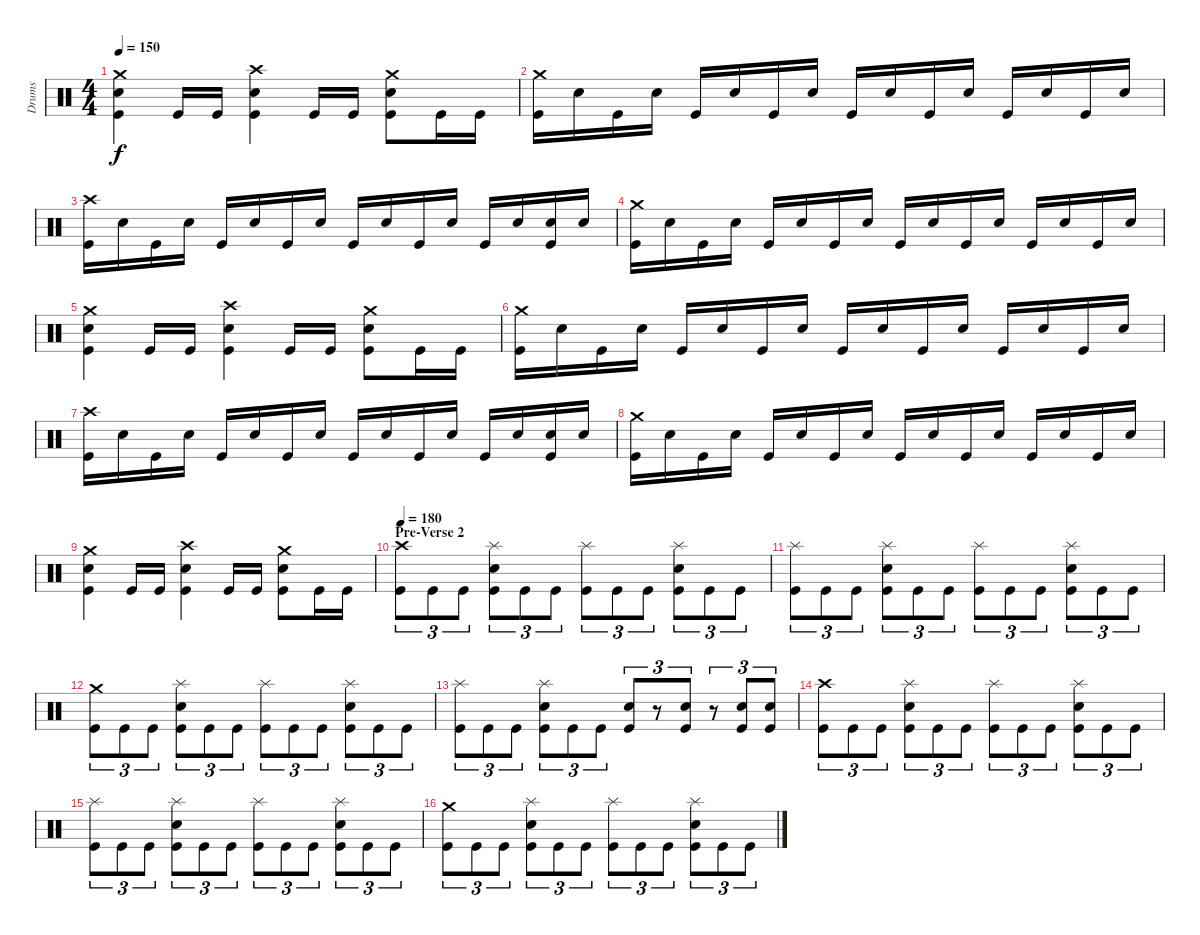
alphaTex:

\track ("Drums" "Drums") {instrument percussion}
\staff {score}
\articulation defaults
\ts (4 4)
\tempo 150
\clef neutral
\ks c
("Crash medium (hit)" "Electric Snare (hit)" "Kick (hit)").4{dy f} "Kick (hit)".16 "Kick (hit)".16 ("Crash high (hit)" "Electric Snare (hit)" "Kick (hit)").4 "Kick (hit)".16 "Kick (hit)".16 ("Crash medium (hit)" "Electric Snare (hit)" "Kick (hit)").8 "Kick (hit)".16 "Kick (hit)".16 |
("Crash medium (hit)" "Kick (hit)").16 "Electric Snare (hit)".16 "Kick (hit)".16 "Electric Snare (hit)".16 "Kick (hit)".16 "Electric Snare (hit)".16 "Kick (hit)".16 "Electric Snare (hit)".16 "Kick (hit)".16 "Electric Snare (hit)".16 "Kick (hit)".16 "Electric Snare (hit)".16 "Kick (hit)".16 "Electric Snare (hit)".16 "Kick (hit)".16 "Electric Snare (hit)".16 |
("Crash high (hit)" "Kick (hit)").16 "Electric Snare (hit)".16 "Kick (hit)".16 "Electric Snare (hit)".16 "Kick (hit)".16 "Electric Snare (hit)".16 "Kick (hit)".16 "Electric Snare (hit)".16 "Kick (hit)".16 "Electric Snare (hit)".16 "Kick (hit)".16 "Electric Snare (hit)".16 "Kick (hit)".16 "Electric Snare (hit)".16 ("Electric Snare (hit)" "Kick (hit)").16 "Electric Snare (hit)".16 |
("Crash medium (hit)" "Kick (hit)").16 "Electric Snare (hit)".16 "Kick (hit)".16 "Electric Snare (hit)".16 "Kick (hit)".16 "Electric Snare (hit)".16 "Kick (hit)".16 "Electric Snare (hit)".16 "Kick (hit)".16 "Electric Snare (hit)".16 "Kick (hit)".16 "Electric Snare (hit)".16 "Kick (hit)".16 "Electric Snare (hit)".16 "Kick (hit)".16 "Electric Snare (hit)".16 |
("Crash medium (hit)" "Electric Snare (hit)" "Kick (hit)").4 "Kick (hit)".16 "Kick (hit)".16 ("Crash high (hit)" "Electric Snare (hit)" "Kick (hit)").4 "Kick (hit)".16 "Kick (hit)".16 ("Crash medium (hit)" "Electric Snare (hit)" "Kick (hit)").8 "Kick (hit)".16 "Kick (hit)".16 |
("Crash medium (hit)" "Kick (hit)").16 "Electric Snare (hit)".16 "Kick (hit)".16 "Electric Snare (hit)".16 "Kick (hit)".16 "Electric Snare (hit)".16 "Kick (hit)".16 "Electric Snare (hit)".16 "Kick (hit)".16 "Electric Snare (hit)".16 "Kick (hit)".16 "Electric Snare (hit)".16 "Kick (hit)".16 "Electric Snare (hit)".16 "Kick (hit)".16 "Electric Snare (hit)".16 |
("Crash high (hit)" "Kick (hit)").16 "Electric Snare (hit)".16 "Kick (hit)".16 "Electric Snare (hit)".16 "Kick (hit)".16 "Electric Snare (hit)".16 "Kick (hit)".16 "Electric Snare (hit)".16 "Kick (hit)".16 "Electric Snare (hit)".16 "Kick (hit)".16 "Electric Snare (hit)".16 "Kick (hit)".16 "Electric Snare (hit)".16 ("Electric Snare (hit)" "Kick (hit)").16 "Electric Snare (hit)".16 |
("Crash medium (hit)" "Kick (hit)").16 "Electric Snare (hit)".16 "Kick (hit)".16 "Electric Snare (hit)".16 "Kick (hit)".16 "Electric Snare (hit)".16 "Kick (hit)".16 "Electric Snare (hit)".16 "Kick (hit)".16 "Electric Snare (hit)".16 "Kick (hit)".16 "Electric Snare (hit)".16 "Kick (hit)".16 "Electric Snare (hit)".16 "Kick (hit)".16 "Electric Snare (hit)".16 |
("Crash medium (hit)" "Electric Snare (hit)" "Kick (hit)").4 "Kick (hit)".16 "Kick (hit)".16 ("Crash high (hit)" "Electric Snare (hit)" "Kick (hit)").4 "Kick (hit)".16 "Kick (hit)".16 ("Crash medium (hit)" "Electric Snare (hit)" "Kick (hit)").8 "Kick (hit)".16 "Kick (hit)".16 |
\section ("" "Pre-Verse 2")
\tempo 180
("Crash high (hit)" "Kick (hit)").8{tu (3 2)} "Kick (hit)".8{tu (3 2)} "Kick (hit)".8{tu (3 2)} ("Splash (hit)" "Electric Snare (hit)" "Kick (hit)").8{tu (3 2)} "Kick (hit)".8{tu (3 2)} "Kick (hit)".8{tu (3 2)} ("Splash (hit)" "Kick (hit)").8{tu (3 2)} "Kick (hit)".8{tu (3 2)} "Kick (hit)".8{tu (3 2)} ("Splash (hit)" "Electric Snare (hit)" "Kick (hit)").8{tu (3 2)} "Kick (hit)".8{tu (3 2)} "Kick (hit)".8{tu (3 2)} |
("Splash (hit)" "Kick (hit)").8{tu (3 2)} "Kick (hit)".8{tu (3 2)} "Kick (hit)".8{tu (3 2)} ("Splash (hit)" "Electric Snare (hit)" "Kick (hit)").8{tu (3 2)} "Kick (hit)".8{tu (3 2)} "Kick (hit)".8{tu (3 2)} ("Splash (hit)" "Kick (hit)").8{tu (3 2)} "Kick (hit)".8{tu (3 2)} "Kick (hit)".8{tu (3 2)} ("Splash (hit)" "Electric Snare (hit)" "Kick (hit)").8{tu (3 2)} "Kick (hit)".8{tu (3 2)} "Kick (hit)".8{tu (3 2)} |
("Crash medium (hit)" "Kick (hit)").8{tu (3 2)} "Kick (hit)".8{tu (3 2)} "Kick (hit)".8{tu (3 2)} ("Splash (hit)" "Electric Snare (hit)" "Kick (hit)").8{tu (3 2)} "Kick (hit)".8{tu (3 2)} "Kick (hit)".8{tu (3 2)} ("Splash (hit)" "Kick (hit)").8{tu (3 2)} "Kick (hit)".8{tu (3 2)} "Kick (hit)".8{tu (3 2)} ("Splash (hit)" "Electric Snare (hit)" "Kick (hit)").8{tu (3 2)} "Kick (hit)".8{tu (3 2)} "Kick (hit)".8{tu (3 2)} |
("Splash (hit)" "Kick (hit)").8{tu (3 2)} "Kick (hit)".8{tu (3 2)} "Kick (hit)".8{tu (3 2)} ("Splash (hit)" "Electric Snare (hit)" "Kick (hit)").8{tu (3 2)} "Kick (hit)".8{tu (3 2)} "Kick (hit)".8{tu (3 2)} ("Electric Snare (hit)" "Kick (hit)").8{tu (3 2)} r.8{tu (3 2)} ("Electric Snare (hit)" "Kick (hit)").8{tu (3 2)} r.8{tu (3 2)} ("Electric Snare (hit)" "Kick (hit)").8{tu (3 2)} ("Electric Snare (hit)" "Kick (hit)").8{tu (3 2)} |
("Crash high (hit)" "Kick (hit)").8{tu (3 2)} "Kick (hit)".8{tu (3 2)} "Kick (hit)".8{tu (3 2)} ("Splash (hit)" "Electric Snare (hit)" "Kick (hit)").8{tu (3 2)} "Kick (hit)".8{tu (3 2)} "Kick (hit)".8{tu (3 2)} ("Splash (hit)" "Kick (hit)").8{tu (3 2)} "Kick (hit)".8{tu (3 2)} "Kick (hit)".8{tu (3 2)} ("Splash (hit)" "Electric Snare (hit)" "Kick (hit)").8{tu (3 2)} "Kick (hit)".8{tu (3 2)} "Kick (hit)".8{tu (3 2)} |
("Splash (hit)" "Kick (hit)").8{tu (3 2)} "Kick (hit)".8{tu (3 2)} "Kick (hit)".8{tu (3 2)} ("Splash (hit)" "Electric Snare (hit)" "Kick (hit)").8{tu (3 2)} "Kick (hit)".8{tu (3 2)} "Kick (hit)".8{tu (3 2)} ("Splash (hit)" "Kick (hit)").8{tu (3 2)} "Kick (hit)".8{tu (3 2)} "Kick (hit)".8{tu (3 2)} ("Splash (hit)" "Electric Snare (hit)" "Kick (hit)").8{tu (3 2)} "Kick (hit)".8{tu (3 2)} "Kick (hit)".8{tu (3 2)} |
("Crash medium (hit)" "Kick (hit)").8{tu (3 2)} "Kick (hit)".8{tu (3 2)} "Kick (hit)".8{tu (3 2)} ("Splash (hit)" "Electric Snare (hit)" "Kick (hit)").8{tu (3 2)} "Kick (hit)".8{tu (3 2)} "Kick (hit)".8{tu (3 2)} ("Splash (hit)" "Kick (hit)").8{tu (3 2)} "Kick (hit)".8{tu (3 2)} "Kick (hit)".8{tu (3 2)} ("Splash (hit)" "Electric Snare (hit)" "Kick (hit)").8{tu (3 2)} "Kick (hit)".8{tu (3 2)} "Kick (hit)".8{tu (3 2)}
